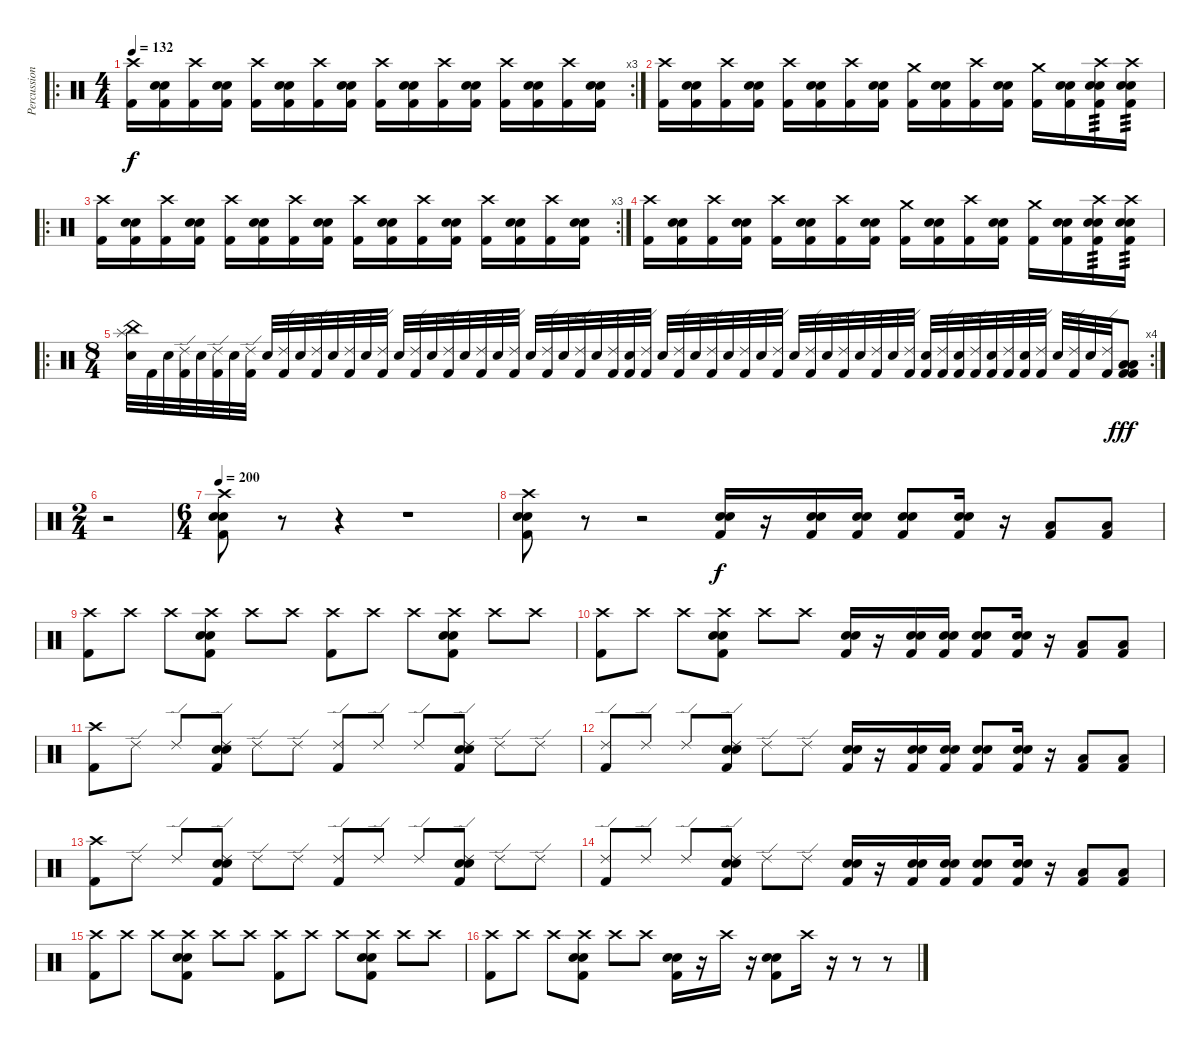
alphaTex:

\track ("Percussion" "Percussion") {instrument percussion}
\staff {score}
\articulation defaults
\ro
\rc 3
\ts (4 4)
\tempo 132
\clef neutral
\ks c
("Crash high (hit)" "Kick (hit) 2").16{dy f volume 16} ("Electric Snare (hit)" "Snare (hit) 2" "Kick (hit) 2").16 ("Crash high (hit)" "Kick (hit) 2").16 ("Electric Snare (hit)" "Snare (hit) 2" "Kick (hit) 2").16 ("Crash high (hit)" "Kick (hit) 2").16 ("Electric Snare (hit)" "Snare (hit) 2" "Kick (hit) 2").16 ("Crash high (hit)" "Kick (hit) 2").16 ("Electric Snare (hit)" "Snare (hit) 2" "Kick (hit) 2").16 ("Crash high (hit)" "Kick (hit) 2").16 ("Electric Snare (hit)" "Snare (hit) 2" "Kick (hit) 2").16 ("Crash high (hit)" "Kick (hit) 2").16 ("Electric Snare (hit)" "Snare (hit) 2" "Kick (hit) 2").16 ("Crash high (hit)" "Kick (hit) 2").16 ("Electric Snare (hit)" "Snare (hit) 2" "Kick (hit) 2").16 ("Crash high (hit)" "Kick (hit) 2").16 ("Electric Snare (hit)" "Snare (hit) 2" "Kick (hit) 2").16 |
("Crash high (hit)" "Kick (hit) 2").16 ("Electric Snare (hit)" "Snare (hit) 2" "Kick (hit) 2").16 ("Crash high (hit)" "Kick (hit) 2").16 ("Electric Snare (hit)" "Snare (hit) 2" "Kick (hit) 2").16 ("Crash high (hit)" "Kick (hit) 2").16 ("Electric Snare (hit)" "Snare (hit) 2" "Kick (hit) 2").16 ("Crash high (hit)" "Kick (hit) 2").16 ("Electric Snare (hit)" "Snare (hit) 2" "Kick (hit) 2").16 ("Crash medium (hit)" "Kick (hit) 2").16 ("Electric Snare (hit)" "Snare (hit) 2" "Kick (hit) 2").16 ("Crash high (hit)" "Kick (hit) 2").16 ("Electric Snare (hit)" "Snare (hit) 2" "Kick (hit) 2").16 ("Crash medium (hit)" "Kick (hit) 2").16 ("Electric Snare (hit)" "Snare (hit) 2" "Kick (hit) 2").16 ("Crash high (hit)" "Electric Snare (hit)" "Snare (hit) 2" "Kick (hit) 2").16{tp 3} ("Crash high (hit)" "Electric Snare (hit)" "Snare (hit) 2" "Kick (hit) 2").16{tp 3} |
\ro
\rc 3
("Crash high (hit)" "Kick (hit) 2").16{volume 16} ("Electric Snare (hit)" "Snare (hit) 2" "Kick (hit) 2").16 ("Crash high (hit)" "Kick (hit) 2").16 ("Electric Snare (hit)" "Snare (hit) 2" "Kick (hit) 2").16 ("Crash high (hit)" "Kick (hit) 2").16 ("Electric Snare (hit)" "Snare (hit) 2" "Kick (hit) 2").16 ("Crash high (hit)" "Kick (hit) 2").16 ("Electric Snare (hit)" "Snare (hit) 2" "Kick (hit) 2").16 ("Crash high (hit)" "Kick (hit) 2").16 ("Electric Snare (hit)" "Snare (hit) 2" "Kick (hit) 2").16 ("Crash high (hit)" "Kick (hit) 2").16 ("Electric Snare (hit)" "Snare (hit) 2" "Kick (hit) 2").16 ("Crash high (hit)" "Kick (hit) 2").16 ("Electric Snare (hit)" "Snare (hit) 2" "Kick (hit) 2").16 ("Crash high (hit)" "Kick (hit) 2").16 ("Electric Snare (hit)" "Snare (hit) 2" "Kick (hit) 2").16 |
("Crash high (hit)" "Kick (hit) 2").16 ("Electric Snare (hit)" "Snare (hit) 2" "Kick (hit) 2").16 ("Crash high (hit)" "Kick (hit) 2").16 ("Electric Snare (hit)" "Snare (hit) 2" "Kick (hit) 2").16 ("Crash high (hit)" "Kick (hit) 2").16 ("Electric Snare (hit)" "Snare (hit) 2" "Kick (hit) 2").16 ("Crash high (hit)" "Kick (hit) 2").16 ("Electric Snare (hit)" "Snare (hit) 2" "Kick (hit) 2").16 ("Crash medium (hit)" "Kick (hit) 2").16 ("Electric Snare (hit)" "Snare (hit) 2" "Kick (hit) 2").16 ("Crash high (hit)" "Kick (hit) 2").16 ("Electric Snare (hit)" "Snare (hit) 2" "Kick (hit) 2").16 ("Crash medium (hit)" "Kick (hit) 2").16 ("Electric Snare (hit)" "Snare (hit) 2" "Kick (hit) 2").16 ("Crash high (hit)" "Electric Snare (hit)" "Snare (hit) 2" "Kick (hit) 2").16{tp 3} ("Crash high (hit)" "Electric Snare (hit)" "Snare (hit) 2" "Kick (hit) 2").16{tp 3} |
\ro
\rc 4
\ts (8 4)
("Splash (hit)" "China (hit)" "Snare (hit) 2").32 "Kick (hit) 2".32 "Snare (hit) 2".32 ("Ride (edge) 2" "Kick (hit) 2").32 "Snare (hit) 2".32 ("Ride (edge) 2" "Kick (hit) 2").32 "Snare (hit) 2".32 ("Ride (edge) 2" "Kick (hit) 2").32 "Snare (hit) 2".32 ("Ride (edge) 2" "Kick (hit) 2").32 "Snare (hit) 2".32 ("Ride (edge) 2" "Kick (hit) 2").32 "Snare (hit) 2".32 ("Ride (edge) 2" "Kick (hit) 2").32 "Snare (hit) 2".32 ("Ride (edge) 2" "Kick (hit) 2").32 "Snare (hit) 2".32 ("Ride (edge) 2" "Kick (hit) 2").32 "Snare (hit) 2".32 ("Ride (edge) 2" "Kick (hit) 2").32 "Snare (hit) 2".32 ("Ride (edge) 2" "Kick (hit) 2").32 "Snare (hit) 2".32 ("Ride (edge) 2" "Kick (hit) 2").32 "Snare (hit) 2".32 ("Ride (edge) 2" "Kick (hit) 2").32 "Snare (hit) 2".32 ("Ride (edge) 2" "Kick (hit) 2").32 "Snare (hit) 2".32 ("Ride (edge) 2" "Kick (hit) 2").32 ("Snare (hit) 2" "Kick (hit) 2").32 ("Ride (edge) 2" "Kick (hit) 2").32 "Snare (hit) 2".32 ("Ride (edge) 2" "Kick (hit) 2").32 "Snare (hit) 2".32 ("Ride (edge) 2" "Kick (hit) 2").32 "Snare (hit) 2".32 ("Ride (edge) 2" "Kick (hit) 2").32 "Snare (hit) 2".32 ("Ride (edge) 2" "Kick (hit) 2").32 "Snare (hit) 2".32 ("Ride (edge) 2" "Kick (hit) 2").32 "Snare (hit) 2".32 ("Ride (edge) 2" "Kick (hit) 2").32 "Snare (hit) 2".32 ("Ride (edge) 2" "Kick (hit) 2").32 "Snare (hit) 2".32 ("Ride (edge) 2" "Kick (hit) 2").32 ("Snare (hit) 2" "Kick (hit) 2").32 ("Ride (edge) 2" "Kick (hit) 2").32 ("Snare (hit) 2" "Kick (hit) 2").32 ("Ride (edge) 2" "Kick (hit) 2").32 ("Snare (hit) 2" "Kick (hit) 2").32 ("Ride (edge) 2" "Kick (hit) 2").32 ("Snare (hit) 2" "Kick (hit) 2").32 ("Ride (edge) 2" "Kick (hit) 2").32 "Snare (hit) 2".32 ("Ride (edge) 2" "Kick (hit) 2").32 "Snare (hit) 2".32 ("Ride (edge) 2" "Kick (hit) 2").32 ("Low Floor Tom (hit)" "Low Floor Tom (hit)" "Kick (hit) 2" "Kick (hit) 2").8{dy fff} |
\ts (2 4)
r.2 |
\ts (6 4)
\tempo 200
("Crash high (hit)" "Electric Snare (hit)" "Snare (hit) 2" "Kick (hit) 2").8 r.8{volume 8} r.4 r.1 |
("Crash high (hit)" "Electric Snare (hit)" "Snare (hit) 2" "Kick (hit) 2").8 r.8{volume 8} r.2 ("Electric Snare (hit)" "Snare (hit) 2" "Kick (hit) 2").16{dy f volume 16} r.16 ("Electric Snare (hit)" "Snare (hit) 2" "Kick (hit) 2").16 ("Electric Snare (hit)" "Snare (hit) 2" "Kick (hit) 2").16 ("Electric Snare (hit)" "Snare (hit) 2" "Kick (hit) 2").8 ("Electric Snare (hit)" "Snare (hit) 2" "Kick (hit) 2").16 r.16 ("Low Tom (hit)" "Kick (hit) 2").8 ("Low Floor Tom (hit)" "Kick (hit) 2").8 |
("Crash high (hit)" "Kick (hit) 2").8 "Crash high (hit)".8 "Crash high (hit)".8 ("Crash high (hit)" "Electric Snare (hit)" "Snare (hit) 2" "Kick (hit) 2").8 "Crash high (hit)".8 "Crash high (hit)".8 ("Crash high (hit)" "Kick (hit) 2").8 "Crash high (hit)".8 "Crash high (hit)".8 ("Crash high (hit)" "Electric Snare (hit)" "Snare (hit) 2" "Kick (hit) 2").8 "Crash high (hit)".8 "Crash high (hit)".8 |
("Crash high (hit)" "Kick (hit) 2").8 "Crash high (hit)".8 "Crash high (hit)".8 ("Crash high (hit)" "Electric Snare (hit)" "Snare (hit) 2" "Kick (hit) 2").8 "Crash high (hit)".8 "Crash high (hit)".8 ("Electric Snare (hit)" "Snare (hit) 2" "Kick (hit) 2").16 r.16 ("Electric Snare (hit)" "Snare (hit) 2" "Kick (hit) 2").16 ("Electric Snare (hit)" "Snare (hit) 2" "Kick (hit) 2").16 ("Electric Snare (hit)" "Snare (hit) 2" "Kick (hit) 2").8 ("Electric Snare (hit)" "Snare (hit) 2" "Kick (hit) 2").16 r.16 ("Low Tom (hit)" "Kick (hit) 2").8 ("Low Floor Tom (hit)" "Kick (hit) 2").8 |
("Crash high (hit)" "Kick (hit) 2").8 "Ride (edge) 2".8 "Ride (edge) 2".8 ("Ride (edge) 2" "Electric Snare (hit)" "Snare (hit) 2" "Kick (hit) 2").8 "Ride (edge) 2".8 "Ride (edge) 2".8 ("Ride (edge) 2" "Kick (hit) 2").8 "Ride (edge) 2".8 "Ride (edge) 2".8 ("Ride (edge) 2" "Electric Snare (hit)" "Snare (hit) 2" "Kick (hit) 2").8 "Ride (edge) 2".8 "Ride (edge) 2".8 |
("Ride (edge) 2" "Kick (hit) 2").8 "Ride (edge) 2".8 "Ride (edge) 2".8 ("Ride (edge) 2" "Electric Snare (hit)" "Snare (hit) 2" "Kick (hit) 2").8 "Ride (edge) 2".8 "Ride (edge) 2".8 ("Electric Snare (hit)" "Snare (hit) 2" "Kick (hit) 2").16 r.16 ("Electric Snare (hit)" "Snare (hit) 2" "Kick (hit) 2").16 ("Electric Snare (hit)" "Snare (hit) 2" "Kick (hit) 2").16 ("Electric Snare (hit)" "Snare (hit) 2" "Kick (hit) 2").8 ("Electric Snare (hit)" "Snare (hit) 2" "Kick (hit) 2").16 r.16 ("Low Tom (hit)" "Kick (hit) 2").8 ("Low Floor Tom (hit)" "Kick (hit) 2").8 |
("Crash high (hit)" "Kick (hit) 2").8 "Ride (edge) 2".8 "Ride (edge) 2".8 ("Ride (edge) 2" "Electric Snare (hit)" "Snare (hit) 2" "Kick (hit) 2").8 "Ride (edge) 2".8 "Ride (edge) 2".8 ("Ride (edge) 2" "Kick (hit) 2").8 "Ride (edge) 2".8 "Ride (edge) 2".8 ("Ride (edge) 2" "Electric Snare (hit)" "Snare (hit) 2" "Kick (hit) 2").8 "Ride (edge) 2".8 "Ride (edge) 2".8 |
("Ride (edge) 2" "Kick (hit) 2").8 "Ride (edge) 2".8 "Ride (edge) 2".8 ("Ride (edge) 2" "Electric Snare (hit)" "Snare (hit) 2" "Kick (hit) 2").8 "Ride (edge) 2".8 "Ride (edge) 2".8 ("Electric Snare (hit)" "Snare (hit) 2" "Kick (hit) 2").16 r.16 ("Electric Snare (hit)" "Snare (hit) 2" "Kick (hit) 2").16 ("Electric Snare (hit)" "Snare (hit) 2" "Kick (hit) 2").16 ("Electric Snare (hit)" "Snare (hit) 2" "Kick (hit) 2").8 ("Electric Snare (hit)" "Snare (hit) 2" "Kick (hit) 2").16 r.16 ("Low Tom (hit)" "Kick (hit) 2").8 ("Low Floor Tom (hit)" "Kick (hit) 2").8 |
("Crash high (hit)" "Kick (hit) 2").8 "Crash high (hit)".8 "Crash high (hit)".8 ("Crash high (hit)" "Electric Snare (hit)" "Snare (hit) 2" "Kick (hit) 2").8 "Crash high (hit)".8 "Crash high (hit)".8 ("Crash high (hit)" "Kick (hit) 2").8 "Crash high (hit)".8 "Crash high (hit)".8 ("Crash high (hit)" "Electric Snare (hit)" "Snare (hit) 2" "Kick (hit) 2").8 "Crash high (hit)".8 "Crash high (hit)".8 |
("Crash high (hit)" "Kick (hit) 2").8 "Crash high (hit)".8 "Crash high (hit)".8 ("Crash high (hit)" "Electric Snare (hit)" "Snare (hit) 2" "Kick (hit) 2").8 "Crash high (hit)".8 "Crash high (hit)".8 ("Electric Snare (hit)" "Snare (hit) 2" "Kick (hit) 2").16 r.16 "Crash high (hit)".16 r.16 ("Electric Snare (hit)" "Snare (hit) 2" "Kick (hit) 2").8 "Crash high (hit)".16 r.16 r.8 r.8
